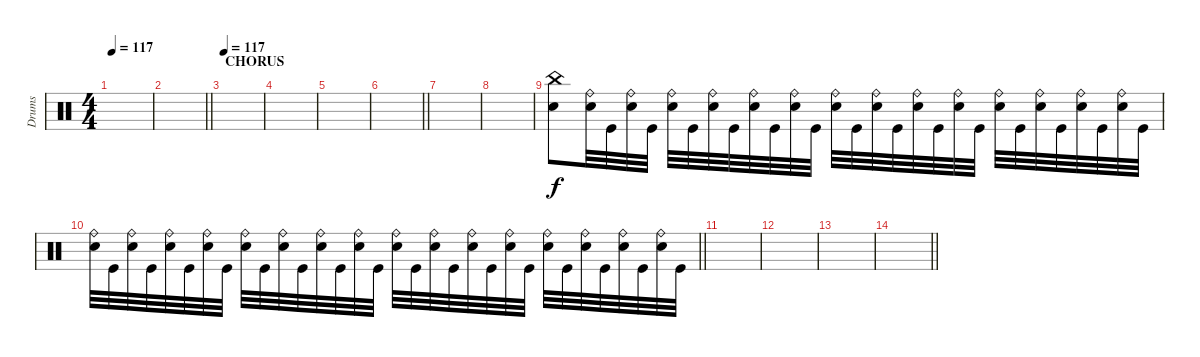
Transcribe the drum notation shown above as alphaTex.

\track ("Drums" "Drums") {instrument percussion}
\staff
\articulation defaults
\ts (4 4)
\tempo 117
\clef neutral
\ks c
|
\barLineRight lightlight
|
\section ("" "CHORUS")
\tempo 117
|
|
|
\barLineRight lightlight
|
|
|
("China (hit)" "Electric Snare (hit)").8 ("Ride (bell)" "Electric Snare (hit)").32 "Kick (hit)".32 ("Ride (bell)" "Electric Snare (hit)").32 "Kick (hit)".32 ("Ride (bell)" "Electric Snare (hit)").32 "Kick (hit)".32 ("Ride (bell)" "Electric Snare (hit)").32 "Kick (hit)".32 ("Ride (bell)" "Electric Snare (hit)").32 "Kick (hit)".32 ("Ride (bell)" "Electric Snare (hit)").32 "Kick (hit)".32 ("Ride (bell)" "Electric Snare (hit)").32 "Kick (hit)".32 ("Ride (bell)" "Electric Snare (hit)").32 "Kick (hit)".32 ("Ride (bell)" "Electric Snare (hit)").32 "Kick (hit)".32 ("Ride (bell)" "Electric Snare (hit)").32 "Kick (hit)".32 ("Ride (bell)" "Electric Snare (hit)").32 "Kick (hit)".32 ("Ride (bell)" "Electric Snare (hit)").32 "Kick (hit)".32 ("Ride (bell)" "Electric Snare (hit)").32 "Kick (hit)".32 ("Ride (bell)" "Electric Snare (hit)").32 "Kick (hit)".32 |
\barLineRight lightlight
("Ride (bell)" "Electric Snare (hit)").32 "Kick (hit)".32 ("Ride (bell)" "Electric Snare (hit)").32 "Kick (hit)".32 ("Ride (bell)" "Electric Snare (hit)").32 "Kick (hit)".32 ("Ride (bell)" "Electric Snare (hit)").32 "Kick (hit)".32 ("Ride (bell)" "Electric Snare (hit)").32 "Kick (hit)".32 ("Ride (bell)" "Electric Snare (hit)").32 "Kick (hit)".32 ("Ride (bell)" "Electric Snare (hit)").32 "Kick (hit)".32 ("Ride (bell)" "Electric Snare (hit)").32 "Kick (hit)".32 ("Ride (bell)" "Electric Snare (hit)").32 "Kick (hit)".32 ("Ride (bell)" "Electric Snare (hit)").32 "Kick (hit)".32 ("Ride (bell)" "Electric Snare (hit)").32 "Kick (hit)".32 ("Ride (bell)" "Electric Snare (hit)").32 "Kick (hit)".32 ("Ride (bell)" "Electric Snare (hit)").32 "Kick (hit)".32 ("Ride (bell)" "Electric Snare (hit)").32 "Kick (hit)".32 ("Ride (bell)" "Electric Snare (hit)").32 "Kick (hit)".32 ("Ride (bell)" "Electric Snare (hit)").32 "Kick (hit)".32 |
|
|
|
\barLineRight lightlight
